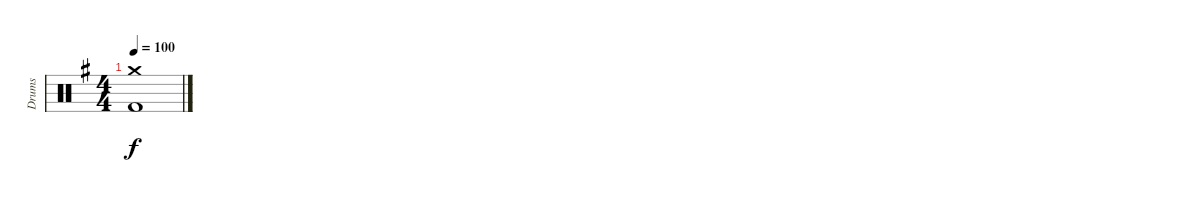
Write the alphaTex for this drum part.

\track ("Drums" "Drums") {instrument percussion}
\staff {score}
\articulation defaults
\ts (4 4)
\tempo 100
\clef neutral
\ks g
("Crash medium (hit)" "Kick (hit) 2").1{dy f}
